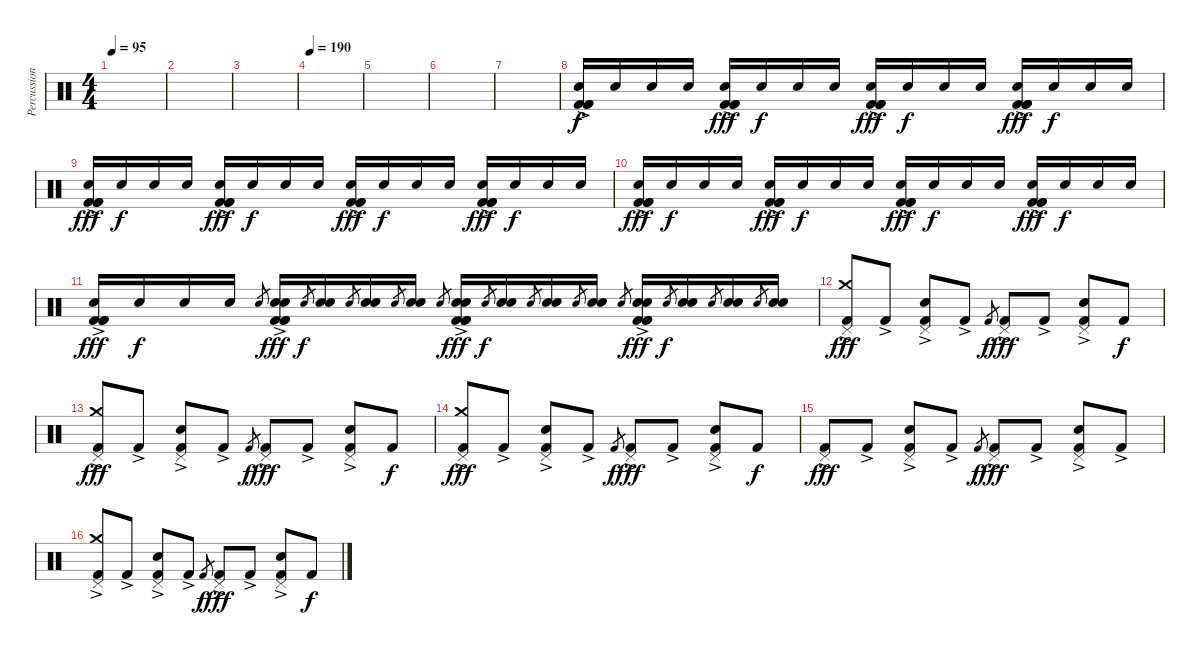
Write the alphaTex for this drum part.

\track ("Percussions" "Percussion") {instrument percussion}
\staff {score}
\articulation defaults
\ts (4 4)
\tempo 95
\clef neutral
\ks c
|
|
|
\tempo 190
|
|
|
|
("Kick (hit) 2"{ac} "Kick (hit) 2"{ac} "Kick (hit) 2"{ac} "Electric Snare (hit)").16 "Electric Snare (hit)".16{dy f} "Electric Snare (hit)".16 "Electric Snare (hit)".16 ("Kick (hit) 2"{ac} "Kick (hit) 2"{ac} "Kick (hit) 2"{ac} "Electric Snare (hit)").16{dy fff} "Electric Snare (hit)".16{dy f} "Electric Snare (hit)".16 "Electric Snare (hit)".16 ("Kick (hit) 2"{ac} "Kick (hit) 2"{ac} "Kick (hit) 2"{ac} "Electric Snare (hit)").16{dy fff} "Electric Snare (hit)".16{dy f} "Electric Snare (hit)".16 "Electric Snare (hit)".16 ("Kick (hit) 2"{ac} "Kick (hit) 2"{ac} "Kick (hit) 2"{ac} "Electric Snare (hit)").16{dy fff} "Electric Snare (hit)".16{dy f} "Electric Snare (hit)".16 "Electric Snare (hit)".16 |
("Kick (hit) 2"{ac} "Kick (hit) 2"{ac} "Kick (hit) 2"{ac} "Electric Snare (hit)").16{dy fff} "Electric Snare (hit)".16{dy f} "Electric Snare (hit)".16 "Electric Snare (hit)".16 ("Kick (hit) 2"{ac} "Kick (hit) 2"{ac} "Kick (hit) 2"{ac} "Electric Snare (hit)").16{dy fff} "Electric Snare (hit)".16{dy f} "Electric Snare (hit)".16 "Electric Snare (hit)".16 ("Kick (hit) 2"{ac} "Kick (hit) 2"{ac} "Kick (hit) 2"{ac} "Electric Snare (hit)").16{dy fff} "Electric Snare (hit)".16{dy f} "Electric Snare (hit)".16 "Electric Snare (hit)".16 ("Kick (hit) 2"{ac} "Kick (hit) 2"{ac} "Kick (hit) 2"{ac} "Electric Snare (hit)").16{dy fff} "Electric Snare (hit)".16{dy f} "Electric Snare (hit)".16 "Electric Snare (hit)".16 |
("Kick (hit) 2"{ac} "Kick (hit) 2"{ac} "Kick (hit) 2"{ac} "Electric Snare (hit)").16{dy fff} "Electric Snare (hit)".16{dy f} "Electric Snare (hit)".16 "Electric Snare (hit)".16 ("Kick (hit) 2"{ac} "Kick (hit) 2"{ac} "Kick (hit) 2"{ac} "Electric Snare (hit)").16{dy fff} "Electric Snare (hit)".16{dy f} "Electric Snare (hit)".16 "Electric Snare (hit)".16 ("Kick (hit) 2"{ac} "Kick (hit) 2"{ac} "Kick (hit) 2"{ac} "Electric Snare (hit)").16{dy fff} "Electric Snare (hit)".16{dy f} "Electric Snare (hit)".16 "Electric Snare (hit)".16 ("Kick (hit) 2"{ac} "Kick (hit) 2"{ac} "Kick (hit) 2"{ac} "Electric Snare (hit)").16{dy fff} "Electric Snare (hit)".16{dy f} "Electric Snare (hit)".16 "Electric Snare (hit)".16 |
("Kick (hit) 2"{ac} "Kick (hit) 2"{ac} "Kick (hit) 2"{ac} "Electric Snare (hit)").16{dy fff} "Electric Snare (hit)".16{dy f} "Electric Snare (hit)".16 "Electric Snare (hit)".16 "Electric Snare (hit)".8{gr} ("Kick (hit) 2"{ac} "Kick (hit) 2"{ac} "Kick (hit) 2"{ac} "Electric Snare (hit)" "Electric Snare (hit)").16{dy fff} "Electric Snare (hit)".8{gr dy f} ("Electric Snare (hit)" "Electric Snare (hit)").16 "Electric Snare (hit)".8{gr} ("Electric Snare (hit)" "Electric Snare (hit)").16 "Electric Snare (hit)".8{gr} ("Electric Snare (hit)" "Electric Snare (hit)").16 "Electric Snare (hit)".8{gr} ("Kick (hit) 2"{ac} "Kick (hit) 2"{ac} "Kick (hit) 2"{ac} "Electric Snare (hit)" "Electric Snare (hit)").16{dy fff} "Electric Snare (hit)".8{gr dy f} ("Electric Snare (hit)" "Electric Snare (hit)").16 "Electric Snare (hit)".8{gr} ("Electric Snare (hit)" "Electric Snare (hit)").16 "Electric Snare (hit)".8{gr} ("Electric Snare (hit)" "Electric Snare (hit)").16 "Electric Snare (hit)".8{gr} ("Kick (hit) 2"{ac} "Kick (hit) 2"{ac} "Kick (hit) 2"{ac} "Electric Snare (hit)" "Electric Snare (hit)").16{dy fff} "Electric Snare (hit)".8{gr dy f} ("Electric Snare (hit)" "Electric Snare (hit)").16 "Electric Snare (hit)".8{gr} ("Electric Snare (hit)" "Electric Snare (hit)").16 "Electric Snare (hit)".8{gr} ("Electric Snare (hit)" "Electric Snare (hit)").16 |
("Crash medium (hit)" "Pedal Hi-Hat (hit)" "Kick (hit) 2"{ac}).8{dy fff volume 15} "Kick (hit) 2"{ac}.8 ("Pedal Hi-Hat (hit)" "Electric Snare (hit)" "Kick (hit) 2"{ac}).8 "Kick (hit) 2"{ac}.8 "Kick (hit) 2".8{gr dy f} ("Pedal Hi-Hat (hit)" "Kick (hit) 2"{ac}).8{dy fff} "Kick (hit) 2"{ac}.8 ("Pedal Hi-Hat (hit)" "Electric Snare (hit)" "Kick (hit) 2"{ac}).8 "Kick (hit) 2".8{dy f} |
("Crash medium (hit)" "Pedal Hi-Hat (hit)" "Kick (hit) 2"{ac}).8{dy fff} "Kick (hit) 2"{ac}.8 ("Pedal Hi-Hat (hit)" "Electric Snare (hit)" "Kick (hit) 2"{ac}).8 "Kick (hit) 2"{ac}.8 "Kick (hit) 2".8{gr dy f} ("Pedal Hi-Hat (hit)" "Kick (hit) 2"{ac}).8{dy fff} "Kick (hit) 2"{ac}.8 ("Pedal Hi-Hat (hit)" "Electric Snare (hit)" "Kick (hit) 2"{ac}).8 "Kick (hit) 2".8{dy f} |
("Crash medium (hit)" "Pedal Hi-Hat (hit)" "Kick (hit) 2"{ac}).8{dy fff} "Kick (hit) 2"{ac}.8 ("Pedal Hi-Hat (hit)" "Electric Snare (hit)" "Kick (hit) 2"{ac}).8 "Kick (hit) 2"{ac}.8 "Kick (hit) 2".8{gr dy f} ("Pedal Hi-Hat (hit)" "Kick (hit) 2"{ac}).8{dy fff} "Kick (hit) 2"{ac}.8 ("Pedal Hi-Hat (hit)" "Electric Snare (hit)" "Kick (hit) 2"{ac}).8 "Kick (hit) 2".8{dy f} |
("Pedal Hi-Hat (hit)" "Kick (hit) 2"{ac}).8{dy fff} "Kick (hit) 2"{ac}.8 ("Pedal Hi-Hat (hit)" "Electric Snare (hit)" "Kick (hit) 2"{ac}).8 "Kick (hit) 2"{ac}.8 "Kick (hit) 2".8{gr dy f} ("Pedal Hi-Hat (hit)" "Kick (hit) 2"{ac}).8{dy fff} "Kick (hit) 2"{ac}.8 ("Pedal Hi-Hat (hit)" "Electric Snare (hit)" "Kick (hit) 2"{ac}).8 "Kick (hit) 2"{ac}.8 |
("Crash medium (hit)" "Pedal Hi-Hat (hit)" "Kick (hit) 2"{ac}).8 "Kick (hit) 2"{ac}.8 ("Pedal Hi-Hat (hit)" "Electric Snare (hit)" "Kick (hit) 2"{ac}).8 "Kick (hit) 2"{ac}.8 "Kick (hit) 2".8{gr dy f} ("Pedal Hi-Hat (hit)" "Kick (hit) 2"{ac}).8{dy fff} "Kick (hit) 2"{ac}.8 ("Pedal Hi-Hat (hit)" "Electric Snare (hit)" "Kick (hit) 2"{ac}).8 "Kick (hit) 2".8{dy f}
